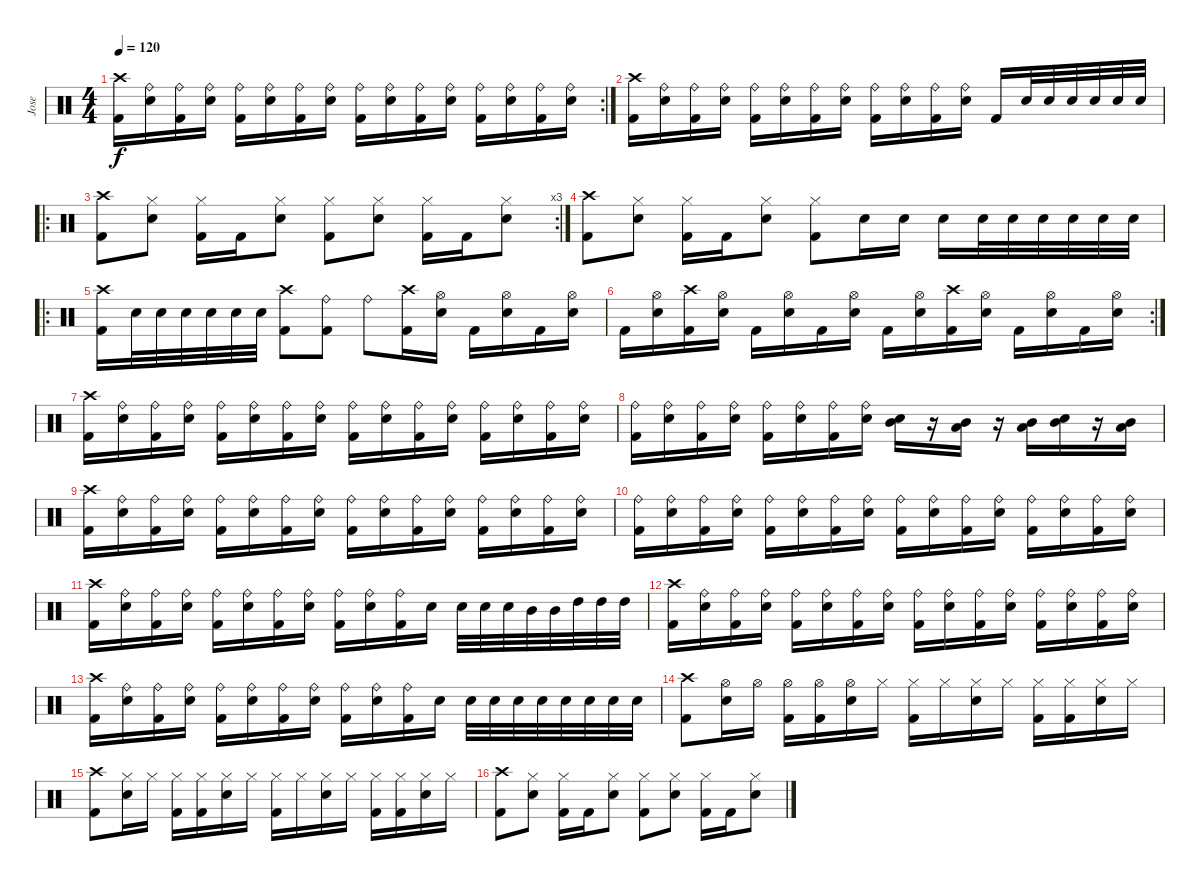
\track ("Jose" "Jose") {instrument percussion}
\staff {score}
\articulation defaults
\rc 2
\ts (4 4)
\tempo 120
\clef neutral
\ks c
("Crash high (hit)" "Kick (hit) 2").16{dy f} ("Ride (bell)" "Electric Snare (hit)").16 ("Ride (bell)" "Kick (hit) 2").16 ("Ride (bell)" "Electric Snare (hit)").16 ("Ride (bell)" "Kick (hit) 2").16 ("Ride (bell)" "Electric Snare (hit)").16 ("Ride (bell)" "Kick (hit) 2").16 ("Ride (bell)" "Electric Snare (hit)").16 ("Ride (bell)" "Kick (hit) 2").16 ("Ride (bell)" "Electric Snare (hit)").16 ("Ride (bell)" "Kick (hit) 2").16 ("Ride (bell)" "Electric Snare (hit)").16 ("Ride (bell)" "Kick (hit) 2").16 ("Ride (bell)" "Electric Snare (hit)").16 ("Ride (bell)" "Kick (hit) 2").16 ("Ride (bell)" "Electric Snare (hit)").16 |
("Crash high (hit)" "Kick (hit) 2").16 ("Ride (bell)" "Electric Snare (hit)").16 ("Ride (bell)" "Kick (hit) 2").16 ("Ride (bell)" "Electric Snare (hit)").16 ("Ride (bell)" "Kick (hit) 2").16 ("Ride (bell)" "Electric Snare (hit)").16 ("Ride (bell)" "Kick (hit) 2").16 ("Ride (bell)" "Electric Snare (hit)").16 ("Ride (bell)" "Kick (hit) 2").16 ("Ride (bell)" "Electric Snare (hit)").16 ("Ride (bell)" "Kick (hit) 2").16 ("Ride (bell)" "Electric Snare (hit)").16 "Kick (hit) 2".16 "Electric Snare (hit)".32 "Electric Snare (hit)".32 "Electric Snare (hit)".32 "Electric Snare (hit)".32 "Electric Snare (hit)".32 "Electric Snare (hit)".32 |
\ro
\rc 3
("Crash high (hit)" "Kick (hit) 2").8 ("Hi-Hat (closed)" "Electric Snare (hit)").8 ("Hi-Hat (closed)" "Kick (hit) 2").16 "Kick (hit) 2".16 ("Hi-Hat (closed)" "Electric Snare (hit)").8 ("Hi-Hat (closed)" "Kick (hit) 2").8 ("Hi-Hat (closed)" "Electric Snare (hit)").8 ("Hi-Hat (closed)" "Kick (hit) 2").16 "Kick (hit) 2".16 ("Hi-Hat (closed)" "Electric Snare (hit)").8 |
("Crash high (hit)" "Kick (hit) 2").8 ("Hi-Hat (closed)" "Electric Snare (hit)").8 ("Hi-Hat (closed)" "Kick (hit) 2").16 "Kick (hit) 2".16 ("Hi-Hat (closed)" "Electric Snare (hit)").8 ("Hi-Hat (closed)" "Kick (hit) 2").8 "Electric Snare (hit)".16 "Electric Snare (hit)".16 "Electric Snare (hit)".16 "Electric Snare (hit)".32 "Electric Snare (hit)".32 "Electric Snare (hit)".32 "Electric Snare (hit)".32 "Electric Snare (hit)".32 "Electric Snare (hit)".32 |
\ro
("Crash high (hit)" "Kick (hit) 2").16 "Electric Snare (hit)".32 "Electric Snare (hit)".32 "Electric Snare (hit)".32 "Electric Snare (hit)".32 "Electric Snare (hit)".32 "Electric Snare (hit)".32 ("Crash high (hit)" "Kick (hit) 2").8 ("Ride (bell)" "Kick (hit) 2").8 "Ride (bell)".8 ("Crash high (hit)" "Kick (hit) 2").16 ("Hi-Hat (open)" "Electric Snare (hit)").16 "Kick (hit) 2".16 ("Hi-Hat (open)" "Electric Snare (hit)").16 "Kick (hit) 2".16 ("Hi-Hat (open)" "Electric Snare (hit)").16 |
\rc 2 "Kick (hit) 2".16
("Hi-Hat (open)" "Electric Snare (hit)").16 ("Crash high (hit)" "Kick (hit) 2").16 ("Hi-Hat (open)" "Electric Snare (hit)").16 "Kick (hit) 2".16 ("Hi-Hat (open)" "Electric Snare (hit)").16 "Kick (hit) 2".16 ("Hi-Hat (open)" "Electric Snare (hit)").16 "Kick (hit) 2".16 ("Hi-Hat (open)" "Electric Snare (hit)").16 ("Crash high (hit)" "Kick (hit) 2").16 ("Hi-Hat (open)" "Electric Snare (hit)").16 "Kick (hit) 2".16 ("Hi-Hat (open)" "Electric Snare (hit)").16 "Kick (hit) 2".16 ("Hi-Hat (open)" "Electric Snare (hit)").16 |
("Crash high (hit)" "Kick (hit) 2").16 ("Ride (bell)" "Electric Snare (hit)").16 ("Ride (bell)" "Kick (hit) 2").16 ("Ride (bell)" "Electric Snare (hit)").16 ("Ride (bell)" "Kick (hit) 2").16 ("Ride (bell)" "Electric Snare (hit)").16 ("Ride (bell)" "Kick (hit) 2").16 ("Ride (bell)" "Electric Snare (hit)").16 ("Ride (bell)" "Kick (hit) 2").16 ("Ride (bell)" "Electric Snare (hit)").16 ("Ride (bell)" "Kick (hit) 2").16 ("Ride (bell)" "Electric Snare (hit)").16 ("Ride (bell)" "Kick (hit) 2").16 ("Ride (bell)" "Electric Snare (hit)").16 ("Ride (bell)" "Kick (hit) 2").16 ("Ride (bell)" "Electric Snare (hit)").16 |
("Ride (bell)" "Kick (hit) 2").16 ("Ride (bell)" "Electric Snare (hit)").16 ("Ride (bell)" "Kick (hit) 2").16 ("Ride (bell)" "Electric Snare (hit)").16 ("Ride (bell)" "Kick (hit) 2").16 ("Ride (bell)" "Electric Snare (hit)").16 ("Ride (bell)" "Kick (hit) 2").16 ("Ride (bell)" "Electric Snare (hit)").16 ("Mid Tom (hit)" "Electric Snare (hit)").16 r.16 ("Mid Tom (hit)" "Low Floor Tom (hit)").16 r.16 ("Mid Tom (hit)" "Low Floor Tom (hit)").16 ("Mid Tom (hit)" "Electric Snare (hit)").16 r.16 ("Mid Tom (hit)" "Low Floor Tom (hit)").16 |
("Crash high (hit)" "Kick (hit) 2").16 ("Ride (bell)" "Electric Snare (hit)").16 ("Ride (bell)" "Kick (hit) 2").16 ("Ride (bell)" "Electric Snare (hit)").16 ("Ride (bell)" "Kick (hit) 2").16 ("Ride (bell)" "Electric Snare (hit)").16 ("Ride (bell)" "Kick (hit) 2").16 ("Ride (bell)" "Electric Snare (hit)").16 ("Ride (bell)" "Kick (hit) 2").16 ("Ride (bell)" "Electric Snare (hit)").16 ("Ride (bell)" "Kick (hit) 2").16 ("Ride (bell)" "Electric Snare (hit)").16 ("Ride (bell)" "Kick (hit) 2").16 ("Ride (bell)" "Electric Snare (hit)").16 ("Ride (bell)" "Kick (hit) 2").16 ("Ride (bell)" "Electric Snare (hit)").16 |
("Ride (bell)" "Kick (hit) 2").16 ("Ride (bell)" "Electric Snare (hit)").16 ("Ride (bell)" "Kick (hit) 2").16 ("Ride (bell)" "Electric Snare (hit)").16 ("Ride (bell)" "Kick (hit) 2").16 ("Ride (bell)" "Electric Snare (hit)").16 ("Ride (bell)" "Kick (hit) 2").16 ("Ride (bell)" "Electric Snare (hit)").16 ("Ride (bell)" "Kick (hit) 2").16 ("Ride (bell)" "Electric Snare (hit)").16 ("Ride (bell)" "Kick (hit) 2").16 ("Ride (bell)" "Electric Snare (hit)").16 ("Ride (bell)" "Kick (hit) 2").16 ("Ride (bell)" "Electric Snare (hit)").16 ("Ride (bell)" "Kick (hit) 2").16 ("Ride (bell)" "Electric Snare (hit)").16 |
("Crash high (hit)" "Kick (hit) 2").16 ("Ride (bell)" "Electric Snare (hit)").16 ("Ride (bell)" "Kick (hit) 2").16 ("Ride (bell)" "Electric Snare (hit)").16 ("Ride (bell)" "Kick (hit) 2").16 ("Ride (bell)" "Electric Snare (hit)").16 ("Ride (bell)" "Kick (hit) 2").16 ("Ride (bell)" "Electric Snare (hit)").16 ("Ride (bell)" "Kick (hit) 2").16 ("Ride (bell)" "Electric Snare (hit)").16 ("Ride (bell)" "Kick (hit) 2").16 "Electric Snare (hit)".16 "Electric Snare (hit)".32 "Electric Snare (hit)".32 "Electric Snare (hit)".32 "Mid Tom (hit)".32 "Mid Tom (hit)".32 "High Tom (hit)".32 "High Tom (hit)".32 "High Tom (hit)".32 |
("Crash high (hit)" "Kick (hit) 2").16 ("Ride (bell)" "Electric Snare (hit)").16 ("Ride (bell)" "Kick (hit) 2").16 ("Ride (bell)" "Electric Snare (hit)").16 ("Ride (bell)" "Kick (hit) 2").16 ("Ride (bell)" "Electric Snare (hit)").16 ("Ride (bell)" "Kick (hit) 2").16 ("Ride (bell)" "Electric Snare (hit)").16 ("Ride (bell)" "Kick (hit) 2").16 ("Ride (bell)" "Electric Snare (hit)").16 ("Ride (bell)" "Kick (hit) 2").16 ("Ride (bell)" "Electric Snare (hit)").16 ("Ride (bell)" "Kick (hit) 2").16 ("Ride (bell)" "Electric Snare (hit)").16 ("Ride (bell)" "Kick (hit) 2").16 ("Ride (bell)" "Electric Snare (hit)").16 |
("Crash high (hit)" "Kick (hit) 2").16 ("Ride (bell)" "Electric Snare (hit)").16 ("Ride (bell)" "Kick (hit) 2").16 ("Ride (bell)" "Electric Snare (hit)").16 ("Ride (bell)" "Kick (hit) 2").16 ("Ride (bell)" "Electric Snare (hit)").16 ("Ride (bell)" "Kick (hit) 2").16 ("Ride (bell)" "Electric Snare (hit)").16 ("Ride (bell)" "Kick (hit) 2").16 ("Ride (bell)" "Electric Snare (hit)").16 ("Ride (bell)" "Kick (hit) 2").16 "Electric Snare (hit)".16 "Electric Snare (hit)".32 "Electric Snare (hit)".32 "Electric Snare (hit)".32 "Electric Snare (hit)".32 "Electric Snare (hit)".32 "Electric Snare (hit)".32 "Electric Snare (hit)".32 "Electric Snare (hit)".32 |
("Crash high (hit)" "Kick (hit) 2").8 ("Hi-Hat (open)" "Electric Snare (hit)").16 "Hi-Hat (open)".16 ("Hi-Hat (open)" "Kick (hit) 2").16 ("Hi-Hat (open)" "Kick (hit) 2").16 ("Hi-Hat (open)" "Electric Snare (hit)").16 "Hi-Hat (closed)".16 ("Hi-Hat (closed)" "Kick (hit) 2").16 "Hi-Hat (closed)".16 ("Hi-Hat (closed)" "Electric Snare (hit)").16 "Hi-Hat (closed)".16 ("Hi-Hat (closed)" "Kick (hit) 2").16 ("Hi-Hat (closed)" "Kick (hit) 2").16 ("Hi-Hat (closed)" "Electric Snare (hit)").16 "Hi-Hat (closed)".16 |
("Crash high (hit)" "Kick (hit) 2").8 ("Hi-Hat (closed)" "Electric Snare (hit)").16 "Hi-Hat (closed)".16 ("Hi-Hat (closed)" "Kick (hit) 2").16 ("Hi-Hat (closed)" "Kick (hit) 2").16 ("Hi-Hat (closed)" "Electric Snare (hit)").16 "Hi-Hat (closed)".16 ("Hi-Hat (closed)" "Kick (hit) 2").16 "Hi-Hat (closed)".16 ("Hi-Hat (closed)" "Electric Snare (hit)").16 "Hi-Hat (closed)".16 ("Hi-Hat (closed)" "Kick (hit) 2").16 ("Hi-Hat (closed)" "Kick (hit) 2").16 ("Hi-Hat (closed)" "Electric Snare (hit)").16 "Hi-Hat (closed)".16 |
("Crash high (hit)" "Kick (hit) 2").8 ("Hi-Hat (closed)" "Electric Snare (hit)").8 ("Hi-Hat (closed)" "Kick (hit) 2").16 "Kick (hit) 2".16 ("Hi-Hat (closed)" "Electric Snare (hit)").8 ("Hi-Hat (closed)" "Kick (hit) 2").8 ("Hi-Hat (closed)" "Electric Snare (hit)").8 ("Hi-Hat (closed)" "Kick (hit) 2").16 "Kick (hit) 2".16 ("Hi-Hat (closed)" "Electric Snare (hit)").8
